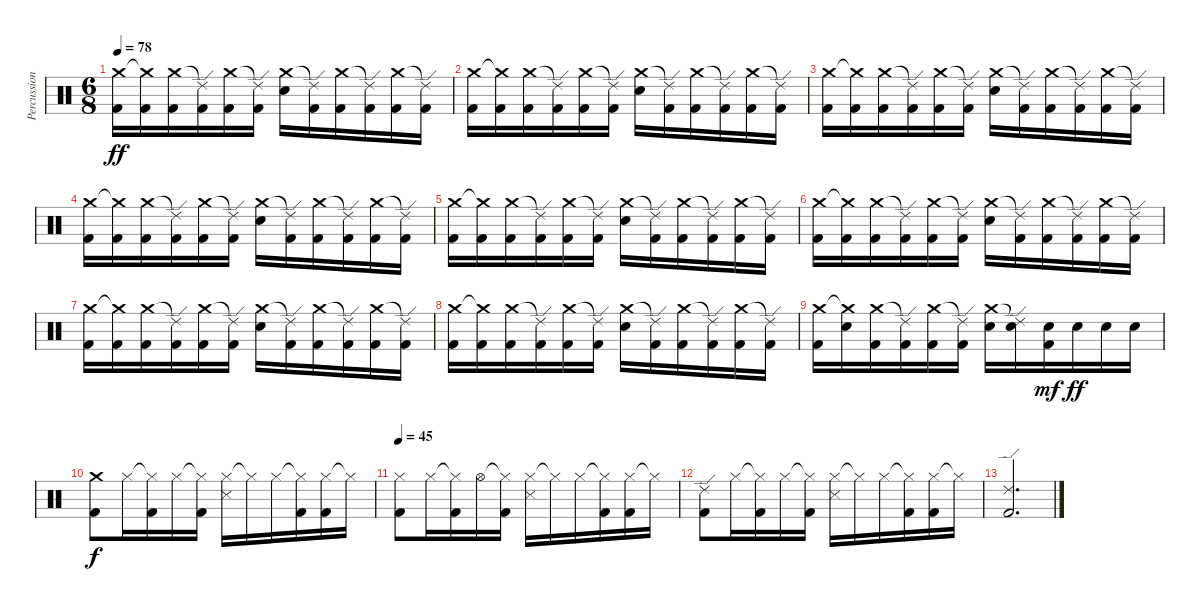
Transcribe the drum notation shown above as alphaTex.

\track ("Percussion" "Percussion") {instrument percussion}
\staff {score}
\articulation defaults
\ts (6 8)
\tempo 78
\clef neutral
\ks c
("Crash medium (hit)" "Kick (hit) 2").16{dy ff} ("Crash medium (hit)"{t} "Kick (hit) 2").16 ("Crash medium (hit)" "Kick (hit) 2").16 ("Ride (edge) 2"{t} "Kick (hit) 2").16 ("Crash medium (hit)" "Kick (hit) 2").16 ("Ride (edge) 2"{t} "Kick (hit) 2").16 ("Crash medium (hit)" "Electric Snare (hit)").16 ("Ride (edge) 2"{t} "Kick (hit) 2").16 ("Crash medium (hit)" "Kick (hit) 2").16 ("Ride (edge) 2"{t} "Kick (hit) 2").16 ("Crash medium (hit)" "Kick (hit) 2").16 ("Ride (edge) 2"{t} "Kick (hit) 2").16 |
("Crash medium (hit)" "Kick (hit) 2").16 ("Crash medium (hit)"{t} "Kick (hit) 2").16 ("Crash medium (hit)" "Kick (hit) 2").16 ("Ride (edge) 2"{t} "Kick (hit) 2").16 ("Crash medium (hit)" "Kick (hit) 2").16 ("Ride (edge) 2"{t} "Kick (hit) 2").16 ("Crash medium (hit)" "Electric Snare (hit)").16 ("Ride (edge) 2"{t} "Kick (hit) 2").16 ("Crash medium (hit)" "Kick (hit) 2").16 ("Ride (edge) 2"{t} "Kick (hit) 2").16 ("Crash medium (hit)" "Kick (hit) 2").16 ("Ride (edge) 2"{t} "Kick (hit) 2").16 |
("Crash medium (hit)" "Kick (hit) 2").16 ("Crash medium (hit)"{t} "Kick (hit) 2").16 ("Crash medium (hit)" "Kick (hit) 2").16 ("Ride (edge) 2"{t} "Kick (hit) 2").16 ("Crash medium (hit)" "Kick (hit) 2").16 ("Ride (edge) 2"{t} "Kick (hit) 2").16 ("Crash medium (hit)" "Electric Snare (hit)").16 ("Ride (edge) 2"{t} "Kick (hit) 2").16 ("Crash medium (hit)" "Kick (hit) 2").16 ("Ride (edge) 2"{t} "Kick (hit) 2").16 ("Crash medium (hit)" "Kick (hit) 2").16 ("Ride (edge) 2"{t} "Kick (hit) 2").16 |
("Crash medium (hit)" "Kick (hit) 2").16 ("Crash medium (hit)"{t} "Kick (hit) 2").16 ("Crash medium (hit)" "Kick (hit) 2").16 ("Ride (edge) 2"{t} "Kick (hit) 2").16 ("Crash medium (hit)" "Kick (hit) 2").16 ("Ride (edge) 2"{t} "Kick (hit) 2").16 ("Crash medium (hit)" "Electric Snare (hit)").16 ("Ride (edge) 2"{t} "Kick (hit) 2").16 ("Crash medium (hit)" "Kick (hit) 2").16 ("Ride (edge) 2"{t} "Kick (hit) 2").16 ("Crash medium (hit)" "Kick (hit) 2").16 ("Ride (edge) 2"{t} "Kick (hit) 2").16 |
("Crash medium (hit)" "Kick (hit) 2").16 ("Crash medium (hit)"{t} "Kick (hit) 2").16 ("Crash medium (hit)" "Kick (hit) 2").16 ("Ride (edge) 2"{t} "Kick (hit) 2").16 ("Crash medium (hit)" "Kick (hit) 2").16 ("Ride (edge) 2"{t} "Kick (hit) 2").16 ("Crash medium (hit)" "Electric Snare (hit)").16 ("Ride (edge) 2"{t} "Kick (hit) 2").16 ("Crash medium (hit)" "Kick (hit) 2").16 ("Ride (edge) 2"{t} "Kick (hit) 2").16 ("Crash medium (hit)" "Kick (hit) 2").16 ("Ride (edge) 2"{t} "Kick (hit) 2").16 |
("Crash medium (hit)" "Kick (hit) 2").16 ("Crash medium (hit)"{t} "Kick (hit) 2").16 ("Crash medium (hit)" "Kick (hit) 2").16 ("Ride (edge) 2"{t} "Kick (hit) 2").16 ("Crash medium (hit)" "Kick (hit) 2").16 ("Ride (edge) 2"{t} "Kick (hit) 2").16 ("Crash medium (hit)" "Electric Snare (hit)").16 ("Ride (edge) 2"{t} "Kick (hit) 2").16 ("Crash medium (hit)" "Kick (hit) 2").16 ("Ride (edge) 2"{t} "Kick (hit) 2").16 ("Crash medium (hit)" "Kick (hit) 2").16 ("Ride (edge) 2"{t} "Kick (hit) 2").16 |
("Crash medium (hit)" "Kick (hit) 2").16 ("Crash medium (hit)"{t} "Kick (hit) 2").16 ("Crash medium (hit)" "Kick (hit) 2").16 ("Ride (edge) 2"{t} "Kick (hit) 2").16 ("Crash medium (hit)" "Kick (hit) 2").16 ("Ride (edge) 2"{t} "Kick (hit) 2").16 ("Crash medium (hit)" "Electric Snare (hit)").16 ("Ride (edge) 2"{t} "Kick (hit) 2").16 ("Crash medium (hit)" "Kick (hit) 2").16 ("Ride (edge) 2"{t} "Kick (hit) 2").16 ("Crash medium (hit)" "Kick (hit) 2").16 ("Ride (edge) 2"{t} "Kick (hit) 2").16 |
("Crash medium (hit)" "Kick (hit) 2").16 ("Crash medium (hit)"{t} "Kick (hit) 2").16 ("Crash medium (hit)" "Kick (hit) 2").16 ("Ride (edge) 2"{t} "Kick (hit) 2").16 ("Crash medium (hit)" "Kick (hit) 2").16 ("Ride (edge) 2"{t} "Kick (hit) 2").16 ("Crash medium (hit)" "Electric Snare (hit)").16 ("Ride (edge) 2"{t} "Kick (hit) 2").16 ("Crash medium (hit)" "Kick (hit) 2").16 ("Ride (edge) 2"{t} "Kick (hit) 2").16 ("Crash medium (hit)" "Kick (hit) 2").16 ("Ride (edge) 2"{t} "Kick (hit) 2").16 |
("Crash medium (hit)" "Kick (hit) 2").16 ("Crash medium (hit)"{t} "Electric Snare (hit)").16 ("Crash medium (hit)" "Kick (hit) 2").16 ("Ride (edge) 2"{t} "Kick (hit) 2").16 ("Crash medium (hit)" "Kick (hit) 2").16 ("Ride (edge) 2"{t} "Kick (hit) 2").16 ("Crash medium (hit)" "Electric Snare (hit)").16 ("Ride (edge) 2"{t} "Electric Snare (hit)").16 ("Electric Snare (hit)" "Kick (hit) 2").16{dy mf} "Electric Snare (hit)".16{dy ff} "Electric Snare (hit)".16 "Electric Snare (hit)".16 |
("Crash medium (hit)" "Kick (hit) 2").8{dy f} "Hi-Hat (closed)".16 ("Hi-Hat (closed)"{t} "Kick (hit) 2").16 "Hi-Hat (closed)".16 ("Hi-Hat (closed)"{t} "Kick (hit) 2").16 ("Hi-Hat (closed)" "Snare (side stick) 3").16 "Hi-Hat (closed)"{t}.16 "Hi-Hat (closed)".16 ("Hi-Hat (closed)"{t} "Kick (hit) 2").16 ("Hi-Hat (closed)" "Kick (hit) 2").16 "Hi-Hat (closed)"{t}.16 |
\tempo 45
("Hi-Hat (closed)" "Kick (hit) 2").8 "Hi-Hat (closed)".16 ("Hi-Hat (closed)"{t} "Kick (hit) 2").16 "Hi-Hat (open)".16 ("Hi-Hat (closed)"{t} "Kick (hit) 2").16 ("Hi-Hat (closed)" "Snare (side stick) 3").16 "Hi-Hat (closed)"{t}.16 "Hi-Hat (closed)".16 ("Hi-Hat (closed)"{t} "Kick (hit) 2").16 ("Hi-Hat (closed)" "Kick (hit) 2").16 "Hi-Hat (closed)"{t}.16 |
("Ride (edge) 2" "Kick (hit) 2").8 "Hi-Hat (closed)".16 ("Hi-Hat (closed)"{t} "Kick (hit) 2").16 "Hi-Hat (closed)".16 ("Hi-Hat (closed)"{t} "Kick (hit) 2").16 ("Hi-Hat (closed)" "Snare (side stick) 3").16 "Hi-Hat (closed)"{t}.16 "Hi-Hat (closed)".16 ("Hi-Hat (closed)"{t} "Kick (hit) 2").16 ("Hi-Hat (closed)" "Kick (hit) 2").16 "Hi-Hat (closed)"{t}.16 |
("Ride (edge) 2" "Kick (hit) 2").2{d}
